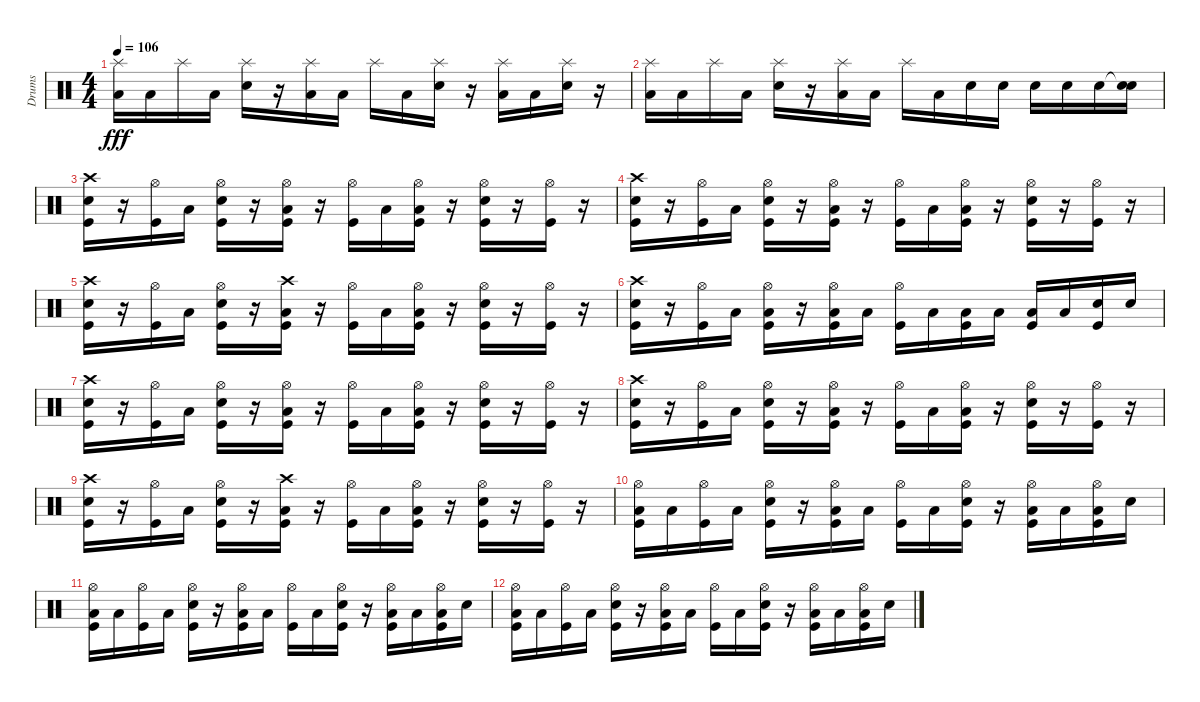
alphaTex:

\track ("Drums" "Drums") {instrument percussion}
\staff {score}
\articulation defaults
\ts (4 4)
\tempo 106
\clef neutral
\ks c
("Splash (hit)" "Low Floor Tom (hit)").16{dy fff} "Low Floor Tom (hit)".16 "Splash (hit)".16 "Low Floor Tom (hit)".16 ("Splash (hit)" "Snare (hit) 2").16 r.16 ("Splash (hit)" "Low Floor Tom (hit)").16 "Low Floor Tom (hit)".16 "Splash (hit)".16 "Low Floor Tom (hit)".16 ("Splash (hit)" "Snare (hit) 2").16 r.16 ("Splash (hit)" "Low Floor Tom (hit)").16 "Low Floor Tom (hit)".16 ("Splash (hit)" "Snare (hit) 2").16 r.16 |
("Splash (hit)" "Low Floor Tom (hit)").16 "Low Floor Tom (hit)".16 "Splash (hit)".16 "Low Floor Tom (hit)".16 ("Splash (hit)" "Snare (hit) 2").16 r.16 ("Splash (hit)" "Low Floor Tom (hit)").16 "Low Floor Tom (hit)".16 "Splash (hit)".16 "Low Floor Tom (hit)".16 "Snare (hit) 2".16 "Snare (hit) 2".16 "Snare (hit) 2".16 "Snare (hit) 2".16 "Snare (hit) 2".16 ("Snare (hit)"{t} "Snare (hit) 2").16 |
("Crash high (hit)" "Snare (hit) 2" "Kick (hit)").16 r.16 ("Hi-Hat (open)" "Kick (hit)").16 "Low Floor Tom (hit)".16 ("Hi-Hat (open)" "Snare (hit) 2" "Kick (hit)").16 r.16 ("Hi-Hat (open)" "Low Floor Tom (hit)" "Kick (hit)").16 r.16 ("Hi-Hat (open)" "Kick (hit)").16 "Low Floor Tom (hit)".16 ("Hi-Hat (open)" "Low Floor Tom (hit)" "Kick (hit)").16 r.16 ("Hi-Hat (open)" "Snare (hit) 2" "Kick (hit)").16 r.16 ("Hi-Hat (open)" "Kick (hit)").16 r.16 |
("Crash high (hit)" "Snare (hit) 2" "Kick (hit)").16 r.16 ("Hi-Hat (open)" "Kick (hit)").16 "Low Floor Tom (hit)".16 ("Hi-Hat (open)" "Snare (hit) 2" "Kick (hit)").16 r.16 ("Hi-Hat (open)" "Low Floor Tom (hit)" "Kick (hit)").16 r.16 ("Hi-Hat (open)" "Kick (hit)").16 "Low Floor Tom (hit)".16 ("Hi-Hat (open)" "Low Floor Tom (hit)" "Kick (hit)").16 r.16 ("Hi-Hat (open)" "Snare (hit) 2" "Kick (hit)").16 r.16 ("Hi-Hat (open)" "Kick (hit)").16 r.16 |
("Crash high (hit)" "Snare (hit) 2" "Kick (hit)").16 r.16 ("Hi-Hat (open)" "Kick (hit)").16 "Low Floor Tom (hit)".16 ("Hi-Hat (open)" "Snare (hit) 2" "Kick (hit)").16 r.16 ("Crash high (hit)" "Low Floor Tom (hit)" "Kick (hit)").16 r.16 ("Hi-Hat (open)" "Kick (hit)").16 "Low Floor Tom (hit)".16 ("Hi-Hat (open)" "Low Floor Tom (hit)" "Kick (hit)").16 r.16 ("Hi-Hat (open)" "Snare (hit) 2" "Kick (hit)").16 r.16 ("Hi-Hat (open)" "Kick (hit)").16 r.16 |
("Crash high (hit)" "Snare (hit) 2" "Kick (hit)").16 r.16 ("Hi-Hat (open)" "Kick (hit)").16 "Low Floor Tom (hit)".16 ("Hi-Hat (open)" "Low Floor Tom (hit)" "Kick (hit)").16 r.16 ("Hi-Hat (open)" "Low Floor Tom (hit)" "Kick (hit)").16 "Low Floor Tom (hit)".16 ("Hi-Hat (open)" "Kick (hit)").16 "Low Floor Tom (hit)".16 ("Low Floor Tom (hit)" "Kick (hit)").16 "Low Floor Tom (hit)".16 ("Low Floor Tom (hit)" "Kick (hit)").16 "Low Floor Tom (hit)".16 ("Snare (hit) 2" "Kick (hit)").16 "Snare (hit) 2".16 |
("Crash high (hit)" "Snare (hit) 2" "Kick (hit)").16 r.16 ("Hi-Hat (open)" "Kick (hit)").16 "Low Floor Tom (hit)".16 ("Hi-Hat (open)" "Snare (hit) 2" "Kick (hit)").16 r.16 ("Hi-Hat (open)" "Low Floor Tom (hit)" "Kick (hit)").16 r.16 ("Hi-Hat (open)" "Kick (hit)").16 "Low Floor Tom (hit)".16 ("Hi-Hat (open)" "Low Floor Tom (hit)" "Kick (hit)").16 r.16 ("Hi-Hat (open)" "Snare (hit) 2" "Kick (hit)").16 r.16 ("Hi-Hat (open)" "Kick (hit)").16 r.16 |
("Crash high (hit)" "Snare (hit) 2" "Kick (hit)").16 r.16 ("Hi-Hat (open)" "Kick (hit)").16 "Low Floor Tom (hit)".16 ("Hi-Hat (open)" "Snare (hit) 2" "Kick (hit)").16 r.16 ("Hi-Hat (open)" "Low Floor Tom (hit)" "Kick (hit)").16 r.16 ("Hi-Hat (open)" "Kick (hit)").16 "Low Floor Tom (hit)".16 ("Hi-Hat (open)" "Low Floor Tom (hit)" "Kick (hit)").16 r.16 ("Hi-Hat (open)" "Snare (hit) 2" "Kick (hit)").16 r.16 ("Hi-Hat (open)" "Kick (hit)").16 r.16 |
("Crash high (hit)" "Snare (hit) 2" "Kick (hit)").16 r.16 ("Hi-Hat (open)" "Kick (hit)").16 "Low Floor Tom (hit)".16 ("Hi-Hat (open)" "Snare (hit) 2" "Kick (hit)").16 r.16 ("Crash high (hit)" "Low Floor Tom (hit)" "Kick (hit)").16 r.16 ("Hi-Hat (open)" "Kick (hit)").16 "Low Floor Tom (hit)".16 ("Hi-Hat (open)" "Low Floor Tom (hit)" "Kick (hit)").16 r.16 ("Hi-Hat (open)" "Snare (hit) 2" "Kick (hit)").16 r.16 ("Hi-Hat (open)" "Kick (hit)").16 r.16 |
("Hi-Hat (open)" "Low Floor Tom (hit)" "Kick (hit)").16 "Low Floor Tom (hit)".16 ("Hi-Hat (open)" "Kick (hit)").16 "Low Floor Tom (hit)".16 ("Hi-Hat (open)" "Snare (hit) 2" "Kick (hit)").16 r.16 ("Hi-Hat (open)" "Low Floor Tom (hit)" "Kick (hit)").16 "Low Floor Tom (hit)".16 ("Hi-Hat (open)" "Kick (hit)").16 "Low Floor Tom (hit)".16 ("Hi-Hat (open)" "Snare (hit) 2" "Kick (hit)").16 r.16 ("Hi-Hat (open)" "Low Floor Tom (hit)" "Kick (hit)").16 "Low Floor Tom (hit)".16 ("Hi-Hat (open)" "Low Floor Tom (hit)" "Kick (hit)").16 "Snare (hit) 2".16 |
("Hi-Hat (open)" "Low Floor Tom (hit)" "Kick (hit)").16 "Low Floor Tom (hit)".16 ("Hi-Hat (open)" "Kick (hit)").16 "Low Floor Tom (hit)".16 ("Hi-Hat (open)" "Snare (hit) 2" "Kick (hit)").16 r.16 ("Hi-Hat (open)" "Low Floor Tom (hit)" "Kick (hit)").16 "Low Floor Tom (hit)".16 ("Hi-Hat (open)" "Kick (hit)").16 "Low Floor Tom (hit)".16 ("Hi-Hat (open)" "Snare (hit) 2" "Kick (hit)").16 r.16 ("Hi-Hat (open)" "Low Floor Tom (hit)" "Kick (hit)").16 "Low Floor Tom (hit)".16 ("Hi-Hat (open)" "Low Floor Tom (hit)" "Kick (hit)").16 "Snare (hit) 2".16 |
("Hi-Hat (open)" "Low Floor Tom (hit)" "Kick (hit)").16 "Low Floor Tom (hit)".16 ("Hi-Hat (open)" "Kick (hit)").16 "Low Floor Tom (hit)".16 ("Hi-Hat (open)" "Snare (hit) 2" "Kick (hit)").16 r.16 ("Hi-Hat (open)" "Low Floor Tom (hit)" "Kick (hit)").16 "Low Floor Tom (hit)".16 ("Hi-Hat (open)" "Kick (hit)").16 "Low Floor Tom (hit)".16 ("Hi-Hat (open)" "Snare (hit) 2" "Kick (hit)").16 r.16 ("Hi-Hat (open)" "Low Floor Tom (hit)" "Kick (hit)").16 "Low Floor Tom (hit)".16 ("Hi-Hat (open)" "Low Floor Tom (hit)" "Kick (hit)").16 "Snare (hit) 2".16
